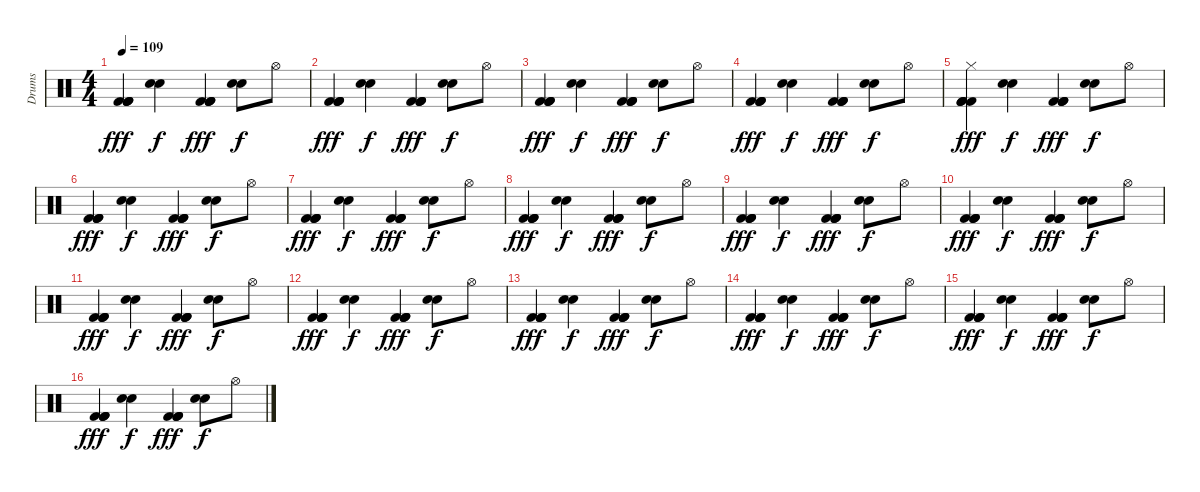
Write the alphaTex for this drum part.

\track ("Drums" "Drums") {instrument percussion}
\staff {score}
\articulation defaults
\ts (4 4)
\tempo 109
\clef neutral
\ks c
("Kick (hit) 2" "Kick (hit) 2" "Kick (hit) 2" "Kick (hit) 2").4{dy fff volume 16} ("Snare (hit) 2" "Electric Snare (hit)").4{dy f} ("Kick (hit) 2" "Kick (hit) 2" "Kick (hit) 2" "Kick (hit) 2").4{dy fff} ("Snare (hit) 2" "Electric Snare (hit)").8{dy f} "Hi-Hat (open)".8 |
("Kick (hit) 2" "Kick (hit) 2" "Kick (hit) 2" "Kick (hit) 2").4{dy fff volume 16} ("Snare (hit) 2" "Electric Snare (hit)").4{dy f} ("Kick (hit) 2" "Kick (hit) 2" "Kick (hit) 2" "Kick (hit) 2").4{dy fff} ("Snare (hit) 2" "Electric Snare (hit)").8{dy f} "Hi-Hat (open)".8 |
("Kick (hit) 2" "Kick (hit) 2" "Kick (hit) 2" "Kick (hit) 2").4{dy fff volume 16} ("Snare (hit) 2" "Electric Snare (hit)").4{dy f} ("Kick (hit) 2" "Kick (hit) 2" "Kick (hit) 2" "Kick (hit) 2").4{dy fff} ("Snare (hit) 2" "Electric Snare (hit)").8{dy f} "Hi-Hat (open)".8 |
("Kick (hit) 2" "Kick (hit) 2" "Kick (hit) 2" "Kick (hit) 2").4{dy fff volume 16} ("Snare (hit) 2" "Electric Snare (hit)").4{dy f} ("Kick (hit) 2" "Kick (hit) 2" "Kick (hit) 2" "Kick (hit) 2").4{dy fff} ("Snare (hit) 2" "Electric Snare (hit)").8{dy f} "Hi-Hat (open)".8 |
("Hi-Hat (closed)" "Kick (hit) 2" "Kick (hit) 2" "Kick (hit) 2" "Kick (hit) 2").4{dy fff volume 16} ("Snare (hit) 2" "Electric Snare (hit)").4{dy f} ("Kick (hit) 2" "Kick (hit) 2" "Kick (hit) 2" "Kick (hit) 2").4{dy fff} ("Snare (hit) 2" "Electric Snare (hit)").8{dy f} "Hi-Hat (open)".8 |
("Kick (hit) 2" "Kick (hit) 2" "Kick (hit) 2" "Kick (hit) 2").4{dy fff volume 16} ("Snare (hit) 2" "Electric Snare (hit)").4{dy f} ("Kick (hit) 2" "Kick (hit) 2" "Kick (hit) 2" "Kick (hit) 2").4{dy fff} ("Snare (hit) 2" "Electric Snare (hit)").8{dy f} "Hi-Hat (open)".8 |
("Kick (hit) 2" "Kick (hit) 2" "Kick (hit) 2" "Kick (hit) 2").4{dy fff volume 16} ("Snare (hit) 2" "Electric Snare (hit)").4{dy f} ("Kick (hit) 2" "Kick (hit) 2" "Kick (hit) 2" "Kick (hit) 2").4{dy fff} ("Snare (hit) 2" "Electric Snare (hit)").8{dy f} "Hi-Hat (open)".8 |
("Kick (hit) 2" "Kick (hit) 2" "Kick (hit) 2" "Kick (hit) 2").4{dy fff volume 16} ("Snare (hit) 2" "Electric Snare (hit)").4{dy f} ("Kick (hit) 2" "Kick (hit) 2" "Kick (hit) 2" "Kick (hit) 2").4{dy fff} ("Snare (hit) 2" "Electric Snare (hit)").8{dy f} "Hi-Hat (open)".8 |
("Kick (hit) 2" "Kick (hit) 2" "Kick (hit) 2" "Kick (hit) 2").4{dy fff volume 16} ("Snare (hit) 2" "Electric Snare (hit)").4{dy f} ("Kick (hit) 2" "Kick (hit) 2" "Kick (hit) 2" "Kick (hit) 2").4{dy fff} ("Snare (hit) 2" "Electric Snare (hit)").8{dy f} "Hi-Hat (open)".8 |
("Kick (hit) 2" "Kick (hit) 2" "Kick (hit) 2" "Kick (hit) 2").4{dy fff volume 16} ("Snare (hit) 2" "Electric Snare (hit)").4{dy f} ("Kick (hit) 2" "Kick (hit) 2" "Kick (hit) 2" "Kick (hit) 2").4{dy fff} ("Snare (hit) 2" "Electric Snare (hit)").8{dy f} "Hi-Hat (open)".8 |
("Kick (hit) 2" "Kick (hit) 2" "Kick (hit) 2" "Kick (hit) 2").4{dy fff volume 16} ("Snare (hit) 2" "Electric Snare (hit)").4{dy f} ("Kick (hit) 2" "Kick (hit) 2" "Kick (hit) 2" "Kick (hit) 2").4{dy fff} ("Snare (hit) 2" "Electric Snare (hit)").8{dy f} "Hi-Hat (open)".8 |
("Kick (hit) 2" "Kick (hit) 2" "Kick (hit) 2" "Kick (hit) 2").4{dy fff volume 16} ("Snare (hit) 2" "Electric Snare (hit)").4{dy f} ("Kick (hit) 2" "Kick (hit) 2" "Kick (hit) 2" "Kick (hit) 2").4{dy fff} ("Snare (hit) 2" "Electric Snare (hit)").8{dy f} "Hi-Hat (open)".8 |
("Kick (hit) 2" "Kick (hit) 2" "Kick (hit) 2" "Kick (hit) 2").4{dy fff volume 16} ("Snare (hit) 2" "Electric Snare (hit)").4{dy f} ("Kick (hit) 2" "Kick (hit) 2" "Kick (hit) 2" "Kick (hit) 2").4{dy fff} ("Snare (hit) 2" "Electric Snare (hit)").8{dy f} "Hi-Hat (open)".8 |
("Kick (hit) 2" "Kick (hit) 2" "Kick (hit) 2" "Kick (hit) 2").4{dy fff volume 16} ("Snare (hit) 2" "Electric Snare (hit)").4{dy f} ("Kick (hit) 2" "Kick (hit) 2" "Kick (hit) 2" "Kick (hit) 2").4{dy fff} ("Snare (hit) 2" "Electric Snare (hit)").8{dy f} "Hi-Hat (open)".8 |
("Kick (hit) 2" "Kick (hit) 2" "Kick (hit) 2" "Kick (hit) 2").4{dy fff volume 16} ("Snare (hit) 2" "Electric Snare (hit)").4{dy f} ("Kick (hit) 2" "Kick (hit) 2" "Kick (hit) 2" "Kick (hit) 2").4{dy fff} ("Snare (hit) 2" "Electric Snare (hit)").8{dy f} "Hi-Hat (open)".8 |
("Kick (hit) 2" "Kick (hit) 2" "Kick (hit) 2" "Kick (hit) 2").4{dy fff volume 16} ("Snare (hit) 2" "Electric Snare (hit)").4{dy f} ("Kick (hit) 2" "Kick (hit) 2" "Kick (hit) 2" "Kick (hit) 2").4{dy fff} ("Snare (hit) 2" "Electric Snare (hit)").8{dy f} "Hi-Hat (open)".8
